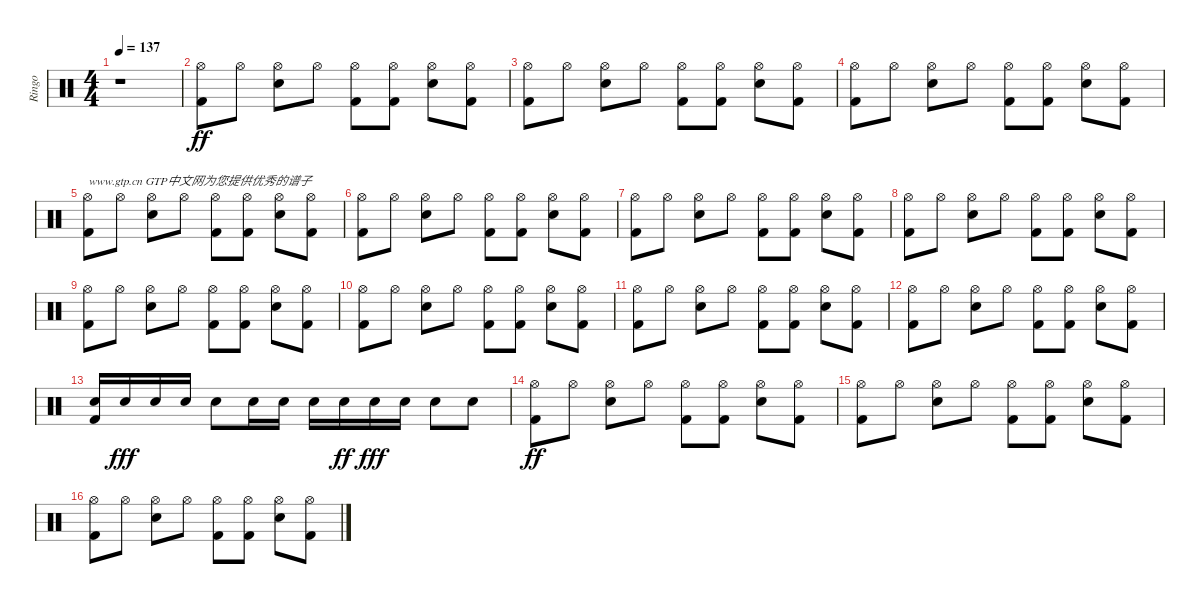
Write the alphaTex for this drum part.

\track ("Ringo" "Ringo") {instrument percussion}
\staff {score}
\articulation defaults
\ts (4 4)
\tempo 137
\clef neutral
\ks c
r.1{dy ff} |
("Kick (hit) 2" "Hi-Hat (open)").8 "Hi-Hat (open)".8 ("Snare (hit) 2" "Hi-Hat (open)").8 "Hi-Hat (open)".8 ("Kick (hit) 2" "Hi-Hat (open)").8 ("Kick (hit) 2" "Hi-Hat (open)").8 ("Snare (hit) 2" "Hi-Hat (open)").8 ("Kick (hit) 2" "Hi-Hat (open)").8 |
("Kick (hit) 2" "Hi-Hat (open)").8 "Hi-Hat (open)".8 ("Snare (hit) 2" "Hi-Hat (open)").8 "Hi-Hat (open)".8 ("Kick (hit) 2" "Hi-Hat (open)").8 ("Kick (hit) 2" "Hi-Hat (open)").8 ("Snare (hit) 2" "Hi-Hat (open)").8 ("Kick (hit) 2" "Hi-Hat (open)").8 |
("Kick (hit) 2" "Hi-Hat (open)").8 "Hi-Hat (open)".8 ("Snare (hit) 2" "Hi-Hat (open)").8 "Hi-Hat (open)".8 ("Kick (hit) 2" "Hi-Hat (open)").8 ("Kick (hit) 2" "Hi-Hat (open)").8 ("Snare (hit) 2" "Hi-Hat (open)").8 ("Kick (hit) 2" "Hi-Hat (open)").8 |
("Kick (hit) 2" "Hi-Hat (open)").8{txt "www.gtp.cn GTP中文网为您提供优秀的谱子"} "Hi-Hat (open)".8 ("Snare (hit) 2" "Hi-Hat (open)").8 "Hi-Hat (open)".8 ("Kick (hit) 2" "Hi-Hat (open)").8 ("Kick (hit) 2" "Hi-Hat (open)").8 ("Snare (hit) 2" "Hi-Hat (open)").8 ("Kick (hit) 2" "Hi-Hat (open)").8 |
("Kick (hit) 2" "Hi-Hat (open)").8 "Hi-Hat (open)".8 ("Snare (hit) 2" "Hi-Hat (open)").8 "Hi-Hat (open)".8 ("Kick (hit) 2" "Hi-Hat (open)").8 ("Kick (hit) 2" "Hi-Hat (open)").8 ("Snare (hit) 2" "Hi-Hat (open)").8 ("Kick (hit) 2" "Hi-Hat (open)").8 |
("Kick (hit) 2" "Hi-Hat (open)").8 "Hi-Hat (open)".8 ("Snare (hit) 2" "Hi-Hat (open)").8 "Hi-Hat (open)".8 ("Kick (hit) 2" "Hi-Hat (open)").8 ("Kick (hit) 2" "Hi-Hat (open)").8 ("Snare (hit) 2" "Hi-Hat (open)").8 ("Kick (hit) 2" "Hi-Hat (open)").8 |
("Kick (hit) 2" "Hi-Hat (open)").8 "Hi-Hat (open)".8 ("Snare (hit) 2" "Hi-Hat (open)").8 "Hi-Hat (open)".8 ("Kick (hit) 2" "Hi-Hat (open)").8 ("Kick (hit) 2" "Hi-Hat (open)").8 ("Snare (hit) 2" "Hi-Hat (open)").8 ("Kick (hit) 2" "Hi-Hat (open)").8 |
("Kick (hit) 2" "Hi-Hat (open)").8 "Hi-Hat (open)".8 ("Snare (hit) 2" "Hi-Hat (open)").8 "Hi-Hat (open)".8 ("Kick (hit) 2" "Hi-Hat (open)").8 ("Kick (hit) 2" "Hi-Hat (open)").8 ("Snare (hit) 2" "Hi-Hat (open)").8 ("Kick (hit) 2" "Hi-Hat (open)").8 |
("Kick (hit) 2" "Hi-Hat (open)").8 "Hi-Hat (open)".8 ("Snare (hit) 2" "Hi-Hat (open)").8 "Hi-Hat (open)".8 ("Kick (hit) 2" "Hi-Hat (open)").8 ("Kick (hit) 2" "Hi-Hat (open)").8 ("Snare (hit) 2" "Hi-Hat (open)").8 ("Kick (hit) 2" "Hi-Hat (open)").8 |
("Kick (hit) 2" "Hi-Hat (open)").8 "Hi-Hat (open)".8 ("Snare (hit) 2" "Hi-Hat (open)").8 "Hi-Hat (open)".8 ("Kick (hit) 2" "Hi-Hat (open)").8 ("Kick (hit) 2" "Hi-Hat (open)").8 ("Snare (hit) 2" "Hi-Hat (open)").8 ("Kick (hit) 2" "Hi-Hat (open)").8 |
("Kick (hit) 2" "Hi-Hat (open)").8 "Hi-Hat (open)".8 ("Snare (hit) 2" "Hi-Hat (open)").8 "Hi-Hat (open)".8 ("Kick (hit) 2" "Hi-Hat (open)").8 ("Kick (hit) 2" "Hi-Hat (open)").8 ("Snare (hit) 2" "Hi-Hat (open)").8 ("Kick (hit) 2" "Hi-Hat (open)").8 |
("Kick (hit) 2" "Snare (hit) 2").16 "Snare (hit) 2".16{dy fff} "Snare (hit) 2".16 "Snare (hit) 2".16 "Snare (hit) 2".8 "Snare (hit) 2".16 "Snare (hit) 2".16 "Snare (hit) 2".16 "Snare (hit) 2".16{dy ff} "Snare (hit) 2".16{dy fff} "Snare (hit) 2".16 "Snare (hit) 2".8 "Snare (hit) 2".8 |
("Kick (hit) 2" "Hi-Hat (open)").8{dy ff} "Hi-Hat (open)".8 ("Snare (hit) 2" "Hi-Hat (open)").8 "Hi-Hat (open)".8 ("Kick (hit) 2" "Hi-Hat (open)").8 ("Kick (hit) 2" "Hi-Hat (open)").8 ("Snare (hit) 2" "Hi-Hat (open)").8 ("Kick (hit) 2" "Hi-Hat (open)").8 |
("Kick (hit) 2" "Hi-Hat (open)").8 "Hi-Hat (open)".8 ("Snare (hit) 2" "Hi-Hat (open)").8 "Hi-Hat (open)".8 ("Kick (hit) 2" "Hi-Hat (open)").8 ("Kick (hit) 2" "Hi-Hat (open)").8 ("Snare (hit) 2" "Hi-Hat (open)").8 ("Kick (hit) 2" "Hi-Hat (open)").8 |
("Kick (hit) 2" "Hi-Hat (open)").8 "Hi-Hat (open)".8 ("Snare (hit) 2" "Hi-Hat (open)").8 "Hi-Hat (open)".8 ("Kick (hit) 2" "Hi-Hat (open)").8 ("Kick (hit) 2" "Hi-Hat (open)").8 ("Snare (hit) 2" "Hi-Hat (open)").8 ("Kick (hit) 2" "Hi-Hat (open)").8
